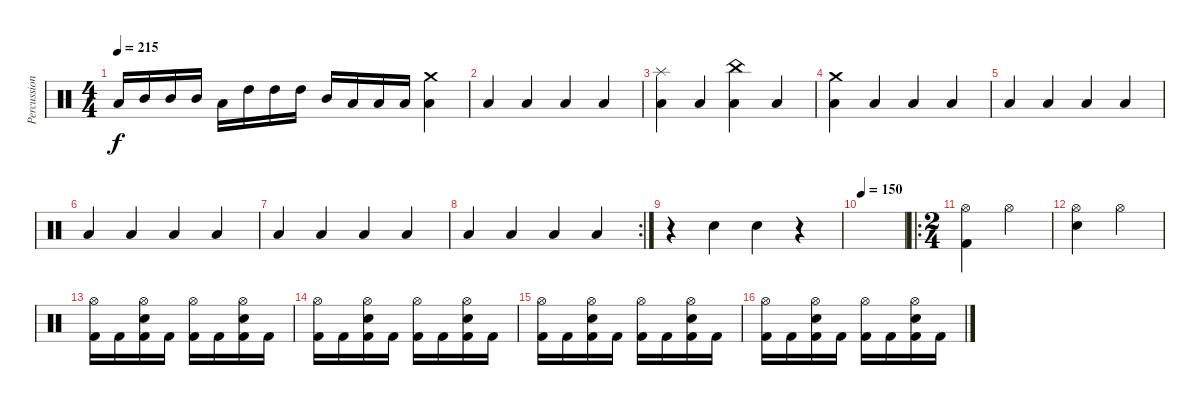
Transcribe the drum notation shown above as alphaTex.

\track ("Percussion" "Percussion") {instrument percussion}
\staff {score}
\articulation defaults
\ts (4 4)
\tempo 215
\clef neutral
\ks c "Low Tom (hit)".16{dy f} "Mid Tom (hit)".16 "Mid Tom (hit)".16 "Mid Tom (hit)".16 "Low Tom (hit)".16 "High Tom (hit)".16 "High Tom (hit)".16 "High Tom (hit)".16 "Mid Tom (hit)".16 "Low Tom (hit)".16 "Low Tom (hit)".16 "Low Tom (hit)".16
("Crash medium (hit)" "Low Tom (hit)").4 |
"Low Tom (hit)".4 "Low Tom (hit)".4 "Low Tom (hit)".4 "Low Tom (hit)".4 |
("Splash (hit)" "Low Tom (hit)").4 "Low Tom (hit)".4 ("China (hit)" "Low Tom (hit)").4 "Low Tom (hit)".4 |
("Crash medium (hit)" "Low Tom (hit)").4 "Low Tom (hit)".4 "Low Tom (hit)".4 "Low Tom (hit)".4 |
"Low Tom (hit)".4 "Low Tom (hit)".4 "Low Tom (hit)".4 "Low Tom (hit)".4 |
"Low Tom (hit)".4 "Low Tom (hit)".4 "Low Tom (hit)".4 "Low Tom (hit)".4 |
"Low Tom (hit)".4 "Low Tom (hit)".4 "Low Tom (hit)".4 "Low Tom (hit)".4 |
\rc 2 "Low Tom (hit)".4 "Low Tom (hit)".4 "Low Tom (hit)".4 "Low Tom (hit)".4
|
r.4 "Snare (hit) 2".4 "Snare (hit) 2".4 r.4 |
\tempo 150
|
\ro
\ts (2 4)
("Kick (hit) 2" "Hi-Hat (open)").4 "Hi-Hat (open)".4 |
("Snare (hit) 2" "Hi-Hat (open)").4 "Hi-Hat (open)".4 |
("Kick (hit) 2" "Hi-Hat (open)").16 "Kick (hit) 2".16 ("Kick (hit) 2" "Snare (hit) 2" "Hi-Hat (open)").16 "Kick (hit) 2".16 ("Kick (hit) 2" "Hi-Hat (open)").16 "Kick (hit) 2".16 ("Kick (hit) 2" "Snare (hit) 2" "Hi-Hat (open)").16 "Kick (hit) 2".16 |
("Kick (hit) 2" "Hi-Hat (open)").16 "Kick (hit) 2".16 ("Kick (hit) 2" "Snare (hit) 2" "Hi-Hat (open)").16 "Kick (hit) 2".16 ("Kick (hit) 2" "Hi-Hat (open)").16 "Kick (hit) 2".16 ("Kick (hit) 2" "Snare (hit) 2" "Hi-Hat (open)").16 "Kick (hit) 2".16 |
("Kick (hit) 2" "Hi-Hat (open)").16 "Kick (hit) 2".16 ("Kick (hit) 2" "Snare (hit) 2" "Hi-Hat (open)").16 "Kick (hit) 2".16 ("Kick (hit) 2" "Hi-Hat (open)").16 "Kick (hit) 2".16 ("Kick (hit) 2" "Snare (hit) 2" "Hi-Hat (open)").16 "Kick (hit) 2".16 |
("Kick (hit) 2" "Hi-Hat (open)").16 "Kick (hit) 2".16 ("Kick (hit) 2" "Snare (hit) 2" "Hi-Hat (open)").16 "Kick (hit) 2".16 ("Kick (hit) 2" "Hi-Hat (open)").16 "Kick (hit) 2".16 ("Kick (hit) 2" "Snare (hit) 2" "Hi-Hat (open)").16 "Kick (hit) 2".16
